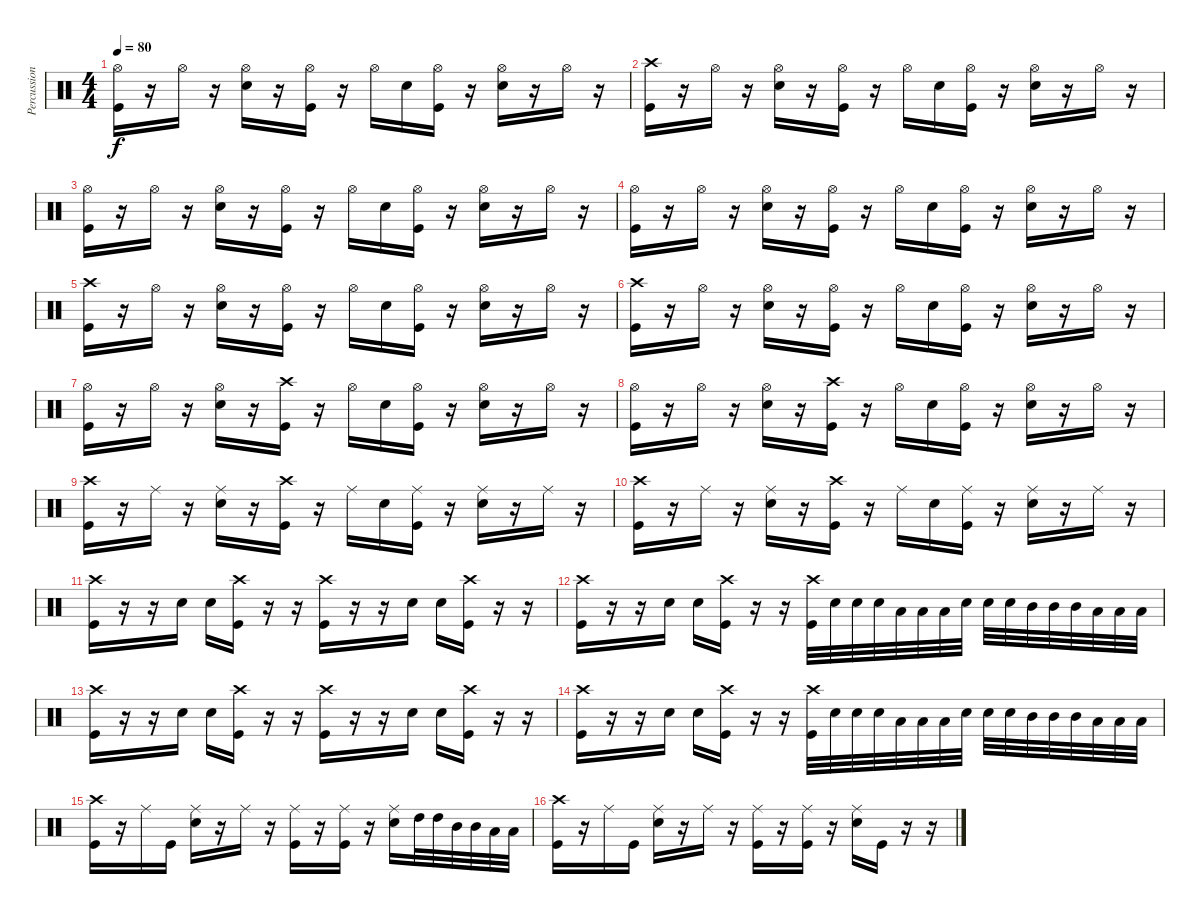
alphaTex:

\track ("Percussion" "Percussion") {instrument percussion}
\staff {score}
\articulation defaults
\ts (4 4)
\tempo 80
\clef neutral
\ks c
("Hi-Hat (open)" "Kick (hit)").16{dy f} r.16 "Hi-Hat (open)".16 r.16 ("Snare (hit) 2" "Hi-Hat (open)").16 r.16 ("Hi-Hat (open)" "Kick (hit)").16 r.16 "Hi-Hat (open)".16 "Snare (hit) 2".16 ("Hi-Hat (open)" "Kick (hit)").16 r.16 ("Snare (hit) 2" "Hi-Hat (open)").16 r.16 "Hi-Hat (open)".16 r.16 |
("Crash high (hit)" "Kick (hit)").16 r.16 "Hi-Hat (open)".16 r.16 ("Snare (hit) 2" "Hi-Hat (open)").16 r.16 ("Hi-Hat (open)" "Kick (hit)").16 r.16 "Hi-Hat (open)".16 "Snare (hit) 2".16 ("Hi-Hat (open)" "Kick (hit)").16 r.16 ("Snare (hit) 2" "Hi-Hat (open)").16 r.16 "Hi-Hat (open)".16 r.16 |
("Hi-Hat (open)" "Kick (hit)").16 r.16 "Hi-Hat (open)".16 r.16 ("Snare (hit) 2" "Hi-Hat (open)").16 r.16 ("Hi-Hat (open)" "Kick (hit)").16 r.16 "Hi-Hat (open)".16 "Snare (hit) 2".16 ("Hi-Hat (open)" "Kick (hit)").16 r.16 ("Snare (hit) 2" "Hi-Hat (open)").16 r.16 "Hi-Hat (open)".16 r.16 |
("Hi-Hat (open)" "Kick (hit)").16 r.16 "Hi-Hat (open)".16 r.16 ("Snare (hit) 2" "Hi-Hat (open)").16 r.16 ("Hi-Hat (open)" "Kick (hit)").16 r.16 "Hi-Hat (open)".16 "Snare (hit) 2".16 ("Hi-Hat (open)" "Kick (hit)").16 r.16 ("Snare (hit) 2" "Hi-Hat (open)").16 r.16 "Hi-Hat (open)".16 r.16 |
("Crash high (hit)" "Kick (hit)").16 r.16 "Hi-Hat (open)".16 r.16 ("Snare (hit) 2" "Hi-Hat (open)").16 r.16 ("Hi-Hat (open)" "Kick (hit)").16 r.16 "Hi-Hat (open)".16 "Snare (hit) 2".16 ("Hi-Hat (open)" "Kick (hit)").16 r.16 ("Snare (hit) 2" "Hi-Hat (open)").16 r.16 "Hi-Hat (open)".16 r.16 |
("Crash high (hit)" "Kick (hit)").16 r.16 "Hi-Hat (open)".16 r.16 ("Snare (hit) 2" "Hi-Hat (open)").16 r.16 ("Hi-Hat (open)" "Kick (hit)").16 r.16 "Hi-Hat (open)".16 "Snare (hit) 2".16 ("Hi-Hat (open)" "Kick (hit)").16 r.16 ("Snare (hit) 2" "Hi-Hat (open)").16 r.16 "Hi-Hat (open)".16 r.16 |
("Hi-Hat (open)" "Kick (hit)").16 r.16 "Hi-Hat (open)".16 r.16 ("Snare (hit) 2" "Hi-Hat (open)").16 r.16 ("Crash high (hit)" "Kick (hit)").16 r.16 "Hi-Hat (open)".16 "Snare (hit) 2".16 ("Hi-Hat (open)" "Kick (hit)").16 r.16 ("Snare (hit) 2" "Hi-Hat (open)").16 r.16 "Hi-Hat (open)".16 r.16 |
("Hi-Hat (open)" "Kick (hit)").16 r.16 "Hi-Hat (open)".16 r.16 ("Snare (hit) 2" "Hi-Hat (open)").16 r.16 ("Crash high (hit)" "Kick (hit)").16 r.16 "Hi-Hat (open)".16 "Snare (hit) 2".16 ("Hi-Hat (open)" "Kick (hit)").16 r.16 ("Snare (hit) 2" "Hi-Hat (open)").16 r.16 "Hi-Hat (open)".16 r.16 |
("Crash high (hit)" "Kick (hit)").16 r.16 "Ride (middle)".16 r.16 ("Snare (hit) 2" "Ride (middle)").16 r.16 ("Crash high (hit)" "Kick (hit)").16 r.16 "Ride (middle)".16 "Snare (hit) 2".16 ("Ride (middle)" "Kick (hit)").16 r.16 ("Snare (hit) 2" "Ride (middle)").16 r.16 "Ride (middle)".16 r.16 |
("Crash high (hit)" "Kick (hit)").16 r.16 "Ride (middle)".16 r.16 ("Snare (hit) 2" "Ride (middle)").16 r.16 ("Crash high (hit)" "Kick (hit)").16 r.16 "Ride (middle)".16 "Snare (hit) 2".16 ("Ride (middle)" "Kick (hit)").16 r.16 ("Snare (hit) 2" "Ride (middle)").16 r.16 "Ride (middle)".16 r.16 |
("Crash high (hit)" "Kick (hit)").16 r.16 r.16 "Snare (hit) 2".16 "Snare (hit) 2".16 ("Crash high (hit)" "Kick (hit)").16 r.16 r.16 ("Crash high (hit)" "Kick (hit)").16 r.16 r.16 "Snare (hit) 2".16 "Snare (hit) 2".16 ("Crash high (hit)" "Kick (hit)").16 r.16 r.16 |
("Crash high (hit)" "Kick (hit)").16 r.16 r.16 "Snare (hit) 2".16 "Snare (hit) 2".16 ("Crash high (hit)" "Kick (hit)").16 r.16 r.16 ("Crash high (hit)" "Kick (hit)").32 "Snare (hit) 2".32 "Snare (hit) 2".32 "Snare (hit) 2".32 "Low Tom (hit)".32 "Low Tom (hit)".32 "Low Tom (hit)".32 "Snare (hit) 2".32 "Snare (hit) 2".32 "Snare (hit) 2".32 "Mid Tom (hit)".32 "Mid Tom (hit)".32 "Mid Tom (hit)".32 "Low Tom (hit)".32 "Low Tom (hit)".32 "Low Tom (hit)".32 |
("Crash high (hit)" "Kick (hit)").16 r.16 r.16 "Snare (hit) 2".16 "Snare (hit) 2".16 ("Crash high (hit)" "Kick (hit)").16 r.16 r.16 ("Crash high (hit)" "Kick (hit)").16 r.16 r.16 "Snare (hit) 2".16 "Snare (hit) 2".16 ("Crash high (hit)" "Kick (hit)").16 r.16 r.16 |
("Crash high (hit)" "Kick (hit)").16 r.16 r.16 "Snare (hit) 2".16 "Snare (hit) 2".16 ("Crash high (hit)" "Kick (hit)").16 r.16 r.16 ("Crash high (hit)" "Kick (hit)").32 "Snare (hit) 2".32 "Snare (hit) 2".32 "Snare (hit) 2".32 "Low Tom (hit)".32 "Low Tom (hit)".32 "Low Tom (hit)".32 "Snare (hit) 2".32 "Snare (hit) 2".32 "Snare (hit) 2".32 "Mid Tom (hit)".32 "Mid Tom (hit)".32 "Mid Tom (hit)".32 "Low Tom (hit)".32 "Low Tom (hit)".32 "Low Tom (hit)".32 |
("Crash high (hit)" "Kick (hit)").16 r.16 "Ride (middle)".16 "Kick (hit)".16 ("Snare (hit) 2" "Ride (middle)").16 r.16 "Ride (middle)".16 r.16 ("Ride (middle)" "Kick (hit)").16 r.16 ("Ride (middle)" "Kick (hit)").16 r.16 ("Snare (hit) 2" "Ride (middle)").16 "High Tom (hit)".32 "High Tom (hit)".32 "Mid Tom (hit)".32 "Mid Tom (hit)".32 "Low Tom (hit)".32 "Low Tom (hit)".32 |
("Crash high (hit)" "Kick (hit)").16 r.16 "Ride (middle)".16 "Kick (hit)".16 ("Snare (hit) 2" "Ride (middle)").16 r.16 "Ride (middle)".16 r.16 ("Ride (middle)" "Kick (hit)").16 r.16 ("Ride (middle)" "Kick (hit)").16 r.16 ("Snare (hit) 2" "Ride (middle)").16 "Kick (hit)".16 r.16 r.16
